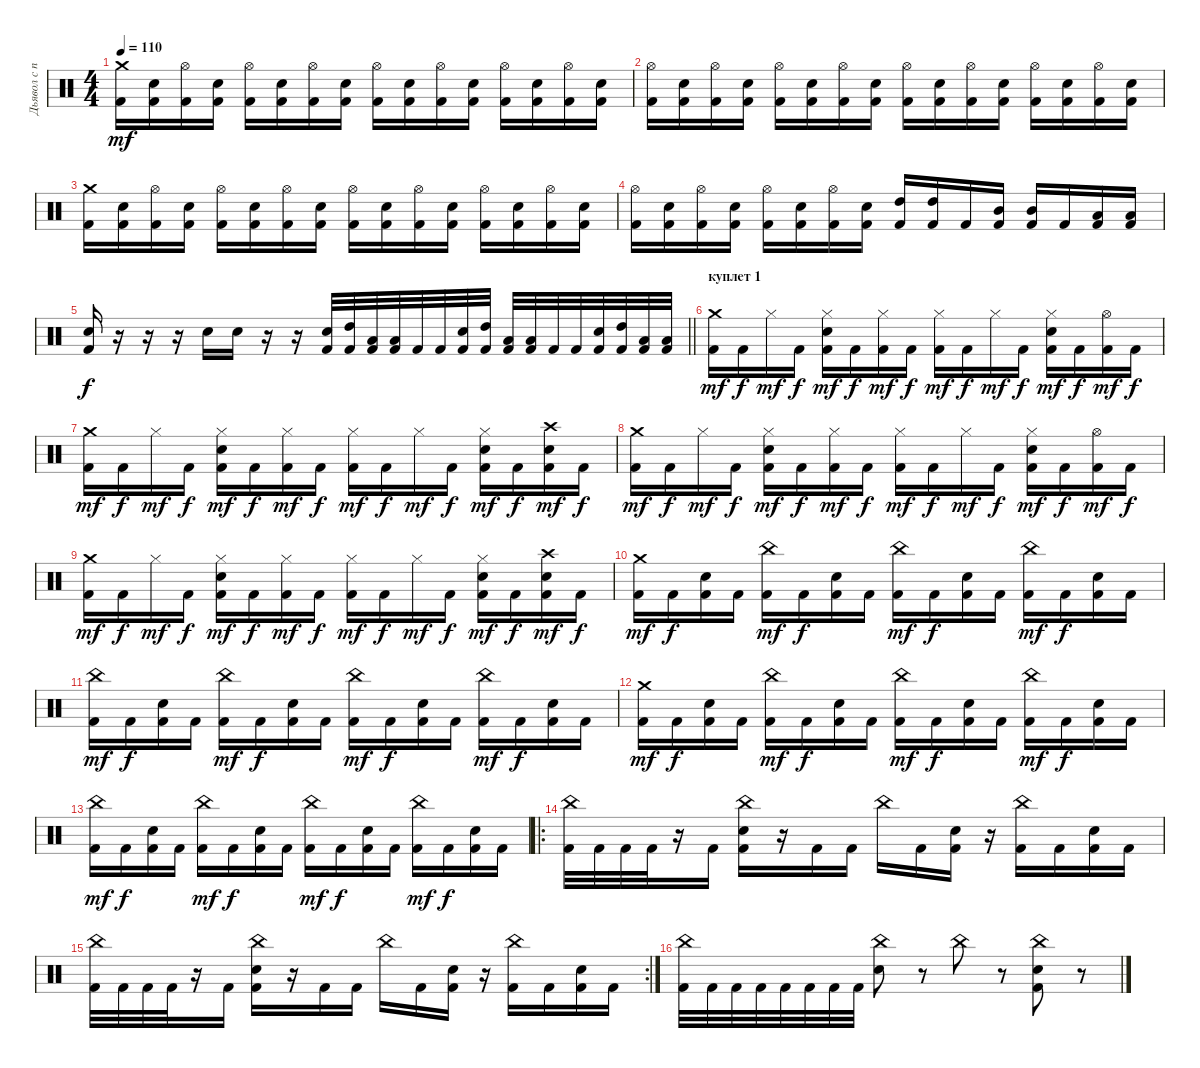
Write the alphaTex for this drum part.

\track ("Дьявол с палками" "Дьявол с п") {instrument percussion}
\staff {score}
\articulation defaults
\ts (4 4)
\tempo 110
\clef neutral
\ks c
("Kick (hit) 2" "Crash medium (hit)").16{dy mf} ("Kick (hit) 2" "Snare (hit) 2").16 ("Kick (hit) 2" "Hi-Hat (open)").16 ("Kick (hit) 2" "Snare (hit) 2").16 ("Kick (hit) 2" "Hi-Hat (open)").16 ("Kick (hit) 2" "Snare (hit) 2").16 ("Kick (hit) 2" "Hi-Hat (open)").16 ("Kick (hit) 2" "Snare (hit) 2").16 ("Kick (hit) 2" "Hi-Hat (open)").16 ("Kick (hit) 2" "Snare (hit) 2").16 ("Kick (hit) 2" "Hi-Hat (open)").16 ("Kick (hit) 2" "Snare (hit) 2").16 ("Kick (hit) 2" "Hi-Hat (open)").16 ("Kick (hit) 2" "Snare (hit) 2").16 ("Kick (hit) 2" "Hi-Hat (open)").16 ("Kick (hit) 2" "Snare (hit) 2").16 |
("Kick (hit) 2" "Hi-Hat (open)").16 ("Kick (hit) 2" "Snare (hit) 2").16 ("Kick (hit) 2" "Hi-Hat (open)").16 ("Kick (hit) 2" "Snare (hit) 2").16 ("Kick (hit) 2" "Hi-Hat (open)").16 ("Kick (hit) 2" "Snare (hit) 2").16 ("Kick (hit) 2" "Hi-Hat (open)").16 ("Kick (hit) 2" "Snare (hit) 2").16 ("Kick (hit) 2" "Hi-Hat (open)").16 ("Kick (hit) 2" "Snare (hit) 2").16 ("Kick (hit) 2" "Hi-Hat (open)").16 ("Kick (hit) 2" "Snare (hit) 2").16 ("Kick (hit) 2" "Hi-Hat (open)").16 ("Kick (hit) 2" "Snare (hit) 2").16 ("Kick (hit) 2" "Hi-Hat (open)").16 ("Kick (hit) 2" "Snare (hit) 2").16 |
("Kick (hit) 2" "Crash medium (hit)").16 ("Kick (hit) 2" "Snare (hit) 2").16 ("Kick (hit) 2" "Hi-Hat (open)").16 ("Kick (hit) 2" "Snare (hit) 2").16 ("Kick (hit) 2" "Hi-Hat (open)").16 ("Kick (hit) 2" "Snare (hit) 2").16 ("Kick (hit) 2" "Hi-Hat (open)").16 ("Kick (hit) 2" "Snare (hit) 2").16 ("Kick (hit) 2" "Hi-Hat (open)").16 ("Kick (hit) 2" "Snare (hit) 2").16 ("Kick (hit) 2" "Hi-Hat (open)").16 ("Kick (hit) 2" "Snare (hit) 2").16 ("Kick (hit) 2" "Hi-Hat (open)").16 ("Kick (hit) 2" "Snare (hit) 2").16 ("Kick (hit) 2" "Hi-Hat (open)").16 ("Kick (hit) 2" "Snare (hit) 2").16 |
("Kick (hit) 2" "Hi-Hat (open)").16 ("Kick (hit) 2" "Snare (hit) 2").16 ("Kick (hit) 2" "Hi-Hat (open)").16 ("Kick (hit) 2" "Snare (hit) 2").16 ("Kick (hit) 2" "Hi-Hat (open)").16 ("Kick (hit) 2" "Snare (hit) 2").16 ("Kick (hit) 2" "Hi-Hat (open)").16 ("Kick (hit) 2" "Snare (hit) 2").16 ("Kick (hit) 2" "High Tom (hit)").16 ("Kick (hit) 2" "High Tom (hit)").16 "Kick (hit) 2".16 ("Kick (hit) 2" "Mid Tom (hit)").16 ("Kick (hit) 2" "Mid Tom (hit)").16 "Kick (hit) 2".16 ("Kick (hit) 2" "Low Tom (hit)").16 ("Kick (hit) 2" "Low Tom (hit)").16 |
\barLineRight lightlight
("Kick (hit) 2" "Snare (hit) 2").16{dy f} r.16 r.16 r.16 "Snare (hit) 2".16 "Snare (hit) 2".16 r.16 r.16 ("Kick (hit) 2" "Snare (hit) 2").32 ("Kick (hit) 2" "High Tom (hit)").32 ("Kick (hit) 2" "Low Tom (hit)").32 ("Kick (hit) 2" "Low Tom (hit)").32 "Kick (hit) 2".32 "Kick (hit) 2".32 ("Kick (hit) 2" "Snare (hit) 2").32 ("Kick (hit) 2" "High Tom (hit)").32 ("Kick (hit) 2" "Low Tom (hit)").32 ("Kick (hit) 2" "Low Tom (hit)").32 "Kick (hit) 2".32 "Kick (hit) 2".32 ("Kick (hit) 2" "Snare (hit) 2").32 ("Kick (hit) 2" "High Tom (hit)").32 ("Kick (hit) 2" "Low Tom (hit)").32 ("Kick (hit) 2" "Low Tom (hit)").32 |
\section ("" "куплет 1")
("Kick (hit) 2" "Crash medium (hit)").16{dy mf} "Kick (hit) 2".16{dy f} "Hi-Hat (closed)".16{dy mf} "Kick (hit) 2".16{dy f} ("Kick (hit) 2" "Snare (hit) 2" "Hi-Hat (closed)").16{dy mf} "Kick (hit) 2".16{dy f} ("Kick (hit) 2" "Hi-Hat (closed)").16{dy mf} "Kick (hit) 2".16{dy f} ("Kick (hit) 2" "Hi-Hat (closed)").16{dy mf} "Kick (hit) 2".16{dy f} "Hi-Hat (closed)".16{dy mf} "Kick (hit) 2".16{dy f} ("Kick (hit) 2" "Snare (hit) 2" "Hi-Hat (closed)").16{dy mf} "Kick (hit) 2".16{dy f} ("Kick (hit) 2" "Hi-Hat (open)").16{dy mf} "Kick (hit) 2".16{dy f} |
("Kick (hit) 2" "Crash medium (hit)").16{dy mf} "Kick (hit) 2".16{dy f} "Hi-Hat (closed)".16{dy mf} "Kick (hit) 2".16{dy f} ("Kick (hit) 2" "Snare (hit) 2" "Hi-Hat (closed)").16{dy mf} "Kick (hit) 2".16{dy f} ("Kick (hit) 2" "Hi-Hat (closed)").16{dy mf} "Kick (hit) 2".16{dy f} ("Kick (hit) 2" "Hi-Hat (closed)").16{dy mf} "Kick (hit) 2".16{dy f} "Hi-Hat (closed)".16{dy mf} "Kick (hit) 2".16{dy f} ("Kick (hit) 2" "Snare (hit) 2" "Hi-Hat (closed)").16{dy mf} "Kick (hit) 2".16{dy f} ("Kick (hit) 2" "Snare (hit) 2" "Crash high (hit)").16{dy mf} "Kick (hit) 2".16{dy f} |
("Kick (hit) 2" "Crash medium (hit)").16{dy mf} "Kick (hit) 2".16{dy f} "Hi-Hat (closed)".16{dy mf} "Kick (hit) 2".16{dy f} ("Kick (hit) 2" "Snare (hit) 2" "Hi-Hat (closed)").16{dy mf} "Kick (hit) 2".16{dy f} ("Kick (hit) 2" "Hi-Hat (closed)").16{dy mf} "Kick (hit) 2".16{dy f} ("Kick (hit) 2" "Hi-Hat (closed)").16{dy mf} "Kick (hit) 2".16{dy f} "Hi-Hat (closed)".16{dy mf} "Kick (hit) 2".16{dy f} ("Kick (hit) 2" "Snare (hit) 2" "Hi-Hat (closed)").16{dy mf} "Kick (hit) 2".16{dy f} ("Kick (hit) 2" "Hi-Hat (open)").16{dy mf} "Kick (hit) 2".16{dy f} |
("Kick (hit) 2" "Crash medium (hit)").16{dy mf} "Kick (hit) 2".16{dy f} "Hi-Hat (closed)".16{dy mf} "Kick (hit) 2".16{dy f} ("Kick (hit) 2" "Snare (hit) 2" "Hi-Hat (closed)").16{dy mf} "Kick (hit) 2".16{dy f} ("Kick (hit) 2" "Hi-Hat (closed)").16{dy mf} "Kick (hit) 2".16{dy f} ("Kick (hit) 2" "Hi-Hat (closed)").16{dy mf} "Kick (hit) 2".16{dy f} "Hi-Hat (closed)".16{dy mf} "Kick (hit) 2".16{dy f} ("Kick (hit) 2" "Snare (hit) 2" "Hi-Hat (closed)").16{dy mf} "Kick (hit) 2".16{dy f} ("Kick (hit) 2" "Snare (hit) 2" "Crash high (hit)").16{dy mf} "Kick (hit) 2".16{dy f} |
("Kick (hit) 2" "Crash medium (hit)").16{dy mf} "Kick (hit) 2".16{dy f} ("Kick (hit) 2" "Snare (hit) 2").16 "Kick (hit) 2".16 ("Kick (hit) 2" "China (hit)").16{dy mf} "Kick (hit) 2".16{dy f} ("Kick (hit) 2" "Snare (hit) 2").16 "Kick (hit) 2".16 ("Kick (hit) 2" "China (hit)").16{dy mf} "Kick (hit) 2".16{dy f} ("Kick (hit) 2" "Snare (hit) 2").16 "Kick (hit) 2".16 ("Kick (hit) 2" "China (hit)").16{dy mf} "Kick (hit) 2".16{dy f} ("Kick (hit) 2" "Snare (hit) 2").16 "Kick (hit) 2".16 |
("Kick (hit) 2" "China (hit)").16{dy mf} "Kick (hit) 2".16{dy f} ("Kick (hit) 2" "Snare (hit) 2").16 "Kick (hit) 2".16 ("Kick (hit) 2" "China (hit)").16{dy mf} "Kick (hit) 2".16{dy f} ("Kick (hit) 2" "Snare (hit) 2").16 "Kick (hit) 2".16 ("Kick (hit) 2" "China (hit)").16{dy mf} "Kick (hit) 2".16{dy f} ("Kick (hit) 2" "Snare (hit) 2").16 "Kick (hit) 2".16 ("Kick (hit) 2" "China (hit)").16{dy mf} "Kick (hit) 2".16{dy f} ("Kick (hit) 2" "Snare (hit) 2").16 "Kick (hit) 2".16 |
("Kick (hit) 2" "Crash medium (hit)").16{dy mf} "Kick (hit) 2".16{dy f} ("Kick (hit) 2" "Snare (hit) 2").16 "Kick (hit) 2".16 ("Kick (hit) 2" "China (hit)").16{dy mf} "Kick (hit) 2".16{dy f} ("Kick (hit) 2" "Snare (hit) 2").16 "Kick (hit) 2".16 ("Kick (hit) 2" "China (hit)").16{dy mf} "Kick (hit) 2".16{dy f} ("Kick (hit) 2" "Snare (hit) 2").16 "Kick (hit) 2".16 ("Kick (hit) 2" "China (hit)").16{dy mf} "Kick (hit) 2".16{dy f} ("Kick (hit) 2" "Snare (hit) 2").16 "Kick (hit) 2".16 |
("Kick (hit) 2" "China (hit)").16{dy mf} "Kick (hit) 2".16{dy f} ("Kick (hit) 2" "Snare (hit) 2").16 "Kick (hit) 2".16 ("Kick (hit) 2" "China (hit)").16{dy mf} "Kick (hit) 2".16{dy f} ("Kick (hit) 2" "Snare (hit) 2").16 "Kick (hit) 2".16 ("Kick (hit) 2" "China (hit)").16{dy mf} "Kick (hit) 2".16{dy f} ("Kick (hit) 2" "Snare (hit) 2").16 "Kick (hit) 2".16 ("Kick (hit) 2" "China (hit)").16{dy mf} "Kick (hit) 2".16{dy f} ("Kick (hit) 2" "Snare (hit) 2").16 "Kick (hit) 2".16 |
\ro
("Kick (hit) 2" "China (hit)").32 "Kick (hit) 2".32 "Kick (hit) 2".32 "Kick (hit) 2".32 r.16 "Kick (hit) 2".16 ("Kick (hit) 2" "Snare (hit) 2" "China (hit)").16 r.16 "Kick (hit) 2".16 "Kick (hit) 2".16 "China (hit)".16 "Kick (hit) 2".16 ("Kick (hit) 2" "Snare (hit) 2").16 r.16 ("Kick (hit) 2" "China (hit)").16 "Kick (hit) 2".16 ("Kick (hit) 2" "Snare (hit) 2").16 "Kick (hit) 2".16 |
\rc 2
("Kick (hit) 2" "China (hit)").32 "Kick (hit) 2".32 "Kick (hit) 2".32 "Kick (hit) 2".32 r.16 "Kick (hit) 2".16 ("Kick (hit) 2" "Snare (hit) 2" "China (hit)").16 r.16 "Kick (hit) 2".16 "Kick (hit) 2".16 "China (hit)".16 "Kick (hit) 2".16 ("Kick (hit) 2" "Snare (hit) 2").16 r.16 ("Kick (hit) 2" "China (hit)").16 "Kick (hit) 2".16 ("Kick (hit) 2" "Snare (hit) 2").16 "Kick (hit) 2".16 |
("Kick (hit) 2" "China (hit)").32 "Kick (hit) 2".32 "Kick (hit) 2".32 "Kick (hit) 2".32 "Kick (hit) 2".32 "Kick (hit) 2".32 "Kick (hit) 2".32 "Kick (hit) 2".32 ("Snare (hit) 2" "China (hit)").8 r.8 "China (hit)".8 r.8 ("Kick (hit) 2" "China (hit)" "Snare (hit) 2").8 r.8
